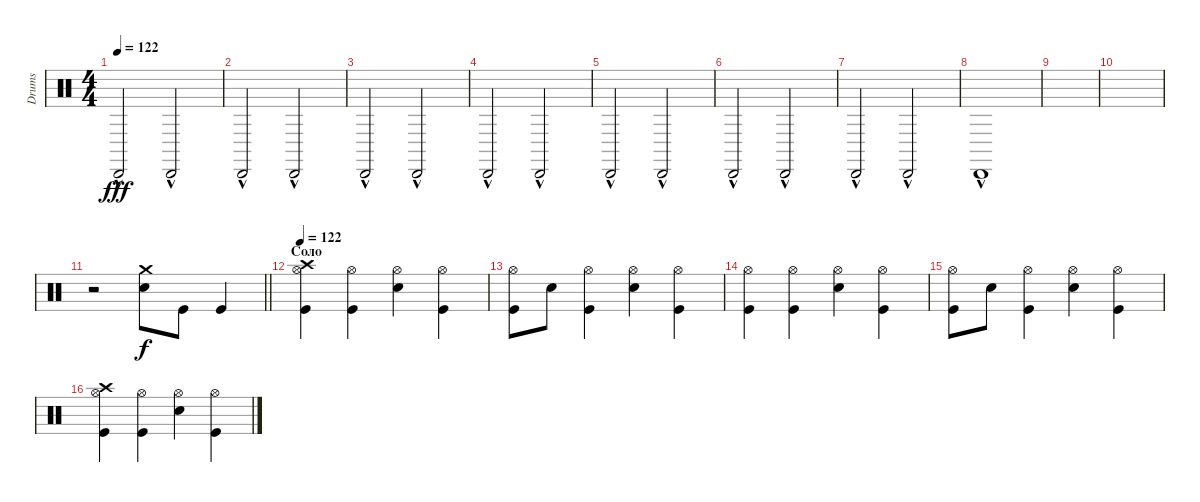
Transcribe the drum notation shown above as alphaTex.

\track ("Drums" "Drums") {instrument percussion}
\staff {score}
\articulation defaults
\ts (4 4)
\tempo 122
\clef neutral
\ks c "Cabasa (hit)"{hac}.2{dy fff} "Cabasa (hit)"{hac}.2
|
"Cabasa (hit)"{hac}.2 "Cabasa (hit)"{hac}.2 |
"Cabasa (hit)"{hac}.2 "Cabasa (hit)"{hac}.2 |
"Cabasa (hit)"{hac}.2 "Cabasa (hit)"{hac}.2 |
"Cabasa (hit)"{hac}.2 "Cabasa (hit)"{hac}.2 |
"Cabasa (hit)"{hac}.2 "Cabasa (hit)"{hac}.2 |
"Cabasa (hit)"{hac}.2 "Cabasa (hit)"{hac}.2 |
"Cabasa (hit)"{hac}.1 |
|
|
\barLineRight lightlight
r.2 ("Snare (hit) 2" "Crash medium (hit)").8{dy f} "Kick (hit)".8 "Kick (hit)".4 |
\section ("" "Соло")
\tempo 122
("Kick (hit)" "Hi-Hat (open)" "Crash high (hit)").4 ("Kick (hit)" "Hi-Hat (open)").4 ("Snare (hit) 2" "Hi-Hat (open)").4 ("Kick (hit)" "Hi-Hat (open)").4 |
("Kick (hit)" "Hi-Hat (open)").8 "Snare (hit) 2".8 ("Kick (hit)" "Hi-Hat (open)").4 ("Snare (hit) 2" "Hi-Hat (open)").4 ("Kick (hit)" "Hi-Hat (open)").4 |
("Kick (hit)" "Hi-Hat (open)").4 ("Kick (hit)" "Hi-Hat (open)").4 ("Snare (hit) 2" "Hi-Hat (open)").4 ("Kick (hit)" "Hi-Hat (open)").4 |
("Kick (hit)" "Hi-Hat (open)").8 "Snare (hit) 2".8 ("Kick (hit)" "Hi-Hat (open)").4 ("Snare (hit) 2" "Hi-Hat (open)").4 ("Kick (hit)" "Hi-Hat (open)").4 |
("Kick (hit)" "Hi-Hat (open)" "Crash high (hit)").4 ("Kick (hit)" "Hi-Hat (open)").4 ("Snare (hit) 2" "Hi-Hat (open)").4 ("Kick (hit)" "Hi-Hat (open)").4
